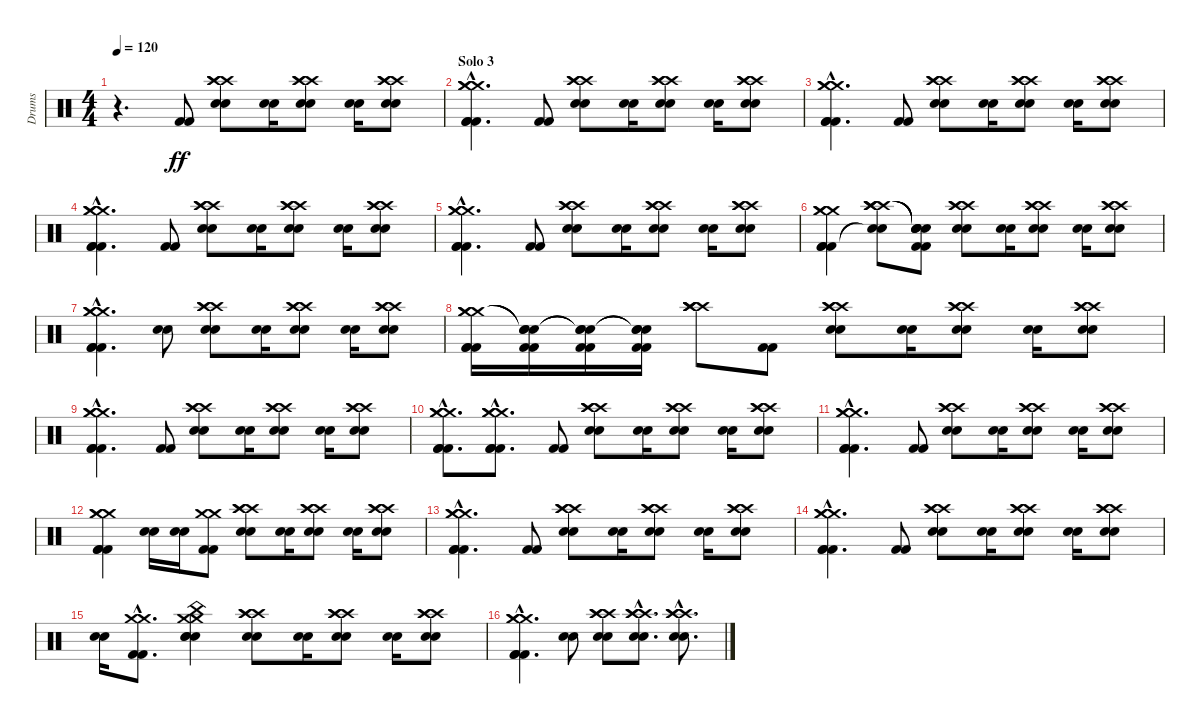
\track ("Drums" "Drums") {instrument percussion}
\staff {score}
\articulation defaults
\ts (4 4)
\tempo 120
\clef neutral
\ks c
r.4{d dy ff} ("Kick (hit) 2" "Kick (hit) 2").8 ("Crash high (hit)" "Crash high (hit)" "Crash high (hit)" "Snare (hit) 2" "Snare (hit) 2").8 ("Snare (hit) 2" "Snare (hit) 2").16 ("Crash high (hit)" "Crash high (hit)" "Crash high (hit)" "Snare (hit) 2" "Snare (hit) 2").8 ("Snare (hit) 2" "Snare (hit) 2").16 ("Crash high (hit)" "Crash high (hit)" "Crash high (hit)" "Snare (hit) 2" "Snare (hit) 2").8 |
\section ("" "Solo 3")
("Crash medium (hit)"{hac} "Crash medium (hit)"{hac} "Crash medium (hit)"{hac} "Kick (hit) 2"{hac} "Kick (hit) 2"{hac} "Kick (hit) 2"{hac}).4{d} ("Kick (hit) 2" "Kick (hit) 2").8 ("Crash high (hit)" "Crash high (hit)" "Crash high (hit)" "Snare (hit) 2" "Snare (hit) 2").8 ("Snare (hit) 2" "Snare (hit) 2").16 ("Crash high (hit)" "Crash high (hit)" "Crash high (hit)" "Snare (hit) 2" "Snare (hit) 2").8 ("Snare (hit) 2" "Snare (hit) 2").16 ("Crash high (hit)" "Crash high (hit)" "Crash high (hit)" "Snare (hit) 2" "Snare (hit) 2").8 |
("Crash medium (hit)"{hac} "Crash medium (hit)"{hac} "Crash medium (hit)"{hac} "Kick (hit) 2"{hac} "Kick (hit) 2"{hac} "Kick (hit) 2"{hac}).4{d} ("Kick (hit) 2" "Kick (hit) 2").8 ("Crash high (hit)" "Crash high (hit)" "Crash high (hit)" "Snare (hit) 2" "Snare (hit) 2").8 ("Snare (hit) 2" "Snare (hit) 2").16 ("Crash high (hit)" "Crash high (hit)" "Crash high (hit)" "Snare (hit) 2" "Snare (hit) 2").8 ("Snare (hit) 2" "Snare (hit) 2").16 ("Crash high (hit)" "Crash high (hit)" "Crash high (hit)" "Snare (hit) 2" "Snare (hit) 2").8 |
("Crash medium (hit)"{hac} "Crash medium (hit)"{hac} "Crash medium (hit)"{hac} "Kick (hit) 2"{hac} "Kick (hit) 2"{hac} "Kick (hit) 2"{hac}).4{d} ("Kick (hit) 2" "Kick (hit) 2").8 ("Crash high (hit)" "Crash high (hit)" "Crash high (hit)" "Snare (hit) 2" "Snare (hit) 2").8 ("Snare (hit) 2" "Snare (hit) 2").16 ("Crash high (hit)" "Crash high (hit)" "Crash high (hit)" "Snare (hit) 2" "Snare (hit) 2").8 ("Snare (hit) 2" "Snare (hit) 2").16 ("Crash high (hit)" "Crash high (hit)" "Crash high (hit)" "Snare (hit) 2" "Snare (hit) 2").8 |
("Crash medium (hit)"{hac} "Crash medium (hit)"{hac} "Crash medium (hit)"{hac} "Kick (hit) 2"{hac} "Kick (hit) 2"{hac} "Kick (hit) 2"{hac}).4{d} ("Kick (hit) 2" "Kick (hit) 2").8 ("Crash high (hit)" "Crash high (hit)" "Crash high (hit)" "Snare (hit) 2" "Snare (hit) 2").8 ("Snare (hit) 2" "Snare (hit) 2").16 ("Crash high (hit)" "Crash high (hit)" "Crash high (hit)" "Snare (hit) 2" "Snare (hit) 2").8 ("Snare (hit) 2" "Snare (hit) 2").16 ("Crash high (hit)" "Crash high (hit)" "Crash high (hit)" "Snare (hit) 2" "Snare (hit) 2").8 |
("Crash medium (hit)" "Crash medium (hit)" "Crash medium (hit)" "Kick (hit) 2" "Kick (hit) 2" "Kick (hit) 2").4 ("Crash high (hit)" "Crash high (hit)" "Crash high (hit)" "Crash high (hit)" "Snare (hit)"{t} "Snare (hit)"{t}).8 ("Snare (hit)"{t} "Snare (hit)"{t} "Snare (hit)"{t} "Snare (hit)"{t} "Kick (hit) 2" "Kick (hit) 2").8 ("Crash high (hit)" "Crash high (hit)" "Crash high (hit)" "Snare (hit) 2" "Snare (hit) 2").8 ("Snare (hit) 2" "Snare (hit) 2").16 ("Crash high (hit)" "Crash high (hit)" "Crash high (hit)" "Snare (hit) 2" "Snare (hit) 2").8 ("Snare (hit) 2" "Snare (hit) 2").16 ("Crash high (hit)" "Crash high (hit)" "Crash high (hit)" "Snare (hit) 2" "Snare (hit) 2").8 |
("Crash medium (hit)"{hac} "Crash medium (hit)"{hac} "Crash medium (hit)"{hac} "Kick (hit) 2"{hac} "Kick (hit) 2"{hac} "Kick (hit) 2"{hac}).4{d} ("Snare (hit) 2" "Snare (hit) 2").8 ("Crash high (hit)" "Crash high (hit)" "Crash high (hit)" "Snare (hit) 2" "Snare (hit) 2").8 ("Snare (hit) 2" "Snare (hit) 2").16 ("Crash high (hit)" "Crash high (hit)" "Crash high (hit)" "Snare (hit) 2" "Snare (hit) 2").8 ("Snare (hit) 2" "Snare (hit) 2").16 ("Crash high (hit)" "Crash high (hit)" "Crash high (hit)" "Snare (hit) 2" "Snare (hit) 2").8 |
("Crash medium (hit)" "Crash medium (hit)" "Crash medium (hit)" "Kick (hit) 2" "Kick (hit) 2" "Kick (hit) 2").16 ("Snare (hit)"{t} "Snare (hit)"{t} "Snare (hit)"{t} "Kick (hit) 2" "Kick (hit) 2").16 ("Snare (hit)"{t} "Snare (hit)"{t} "Snare (hit)"{t} "Kick (hit) 2" "Kick (hit) 2").16 ("Snare (hit)"{t} "Snare (hit)"{t} "Snare (hit)"{t} "Kick (hit) 2" "Kick (hit) 2").16 ("Crash high (hit)" "Crash high (hit)" "Crash high (hit)" "Crash high (hit)").8 ("Kick (hit) 2" "Kick (hit) 2").8 ("Crash high (hit)" "Crash high (hit)" "Crash high (hit)" "Snare (hit) 2" "Snare (hit) 2").8 ("Snare (hit) 2" "Snare (hit) 2").16 ("Crash high (hit)" "Crash high (hit)" "Crash high (hit)" "Snare (hit) 2" "Snare (hit) 2").8 ("Snare (hit) 2" "Snare (hit) 2").16 ("Crash high (hit)" "Crash high (hit)" "Crash high (hit)" "Snare (hit) 2" "Snare (hit) 2").8 |
("Crash medium (hit)"{hac} "Crash medium (hit)"{hac} "Crash medium (hit)"{hac} "Kick (hit) 2"{hac} "Kick (hit) 2"{hac} "Kick (hit) 2"{hac}).4{d} ("Kick (hit) 2" "Kick (hit) 2").8 ("Crash high (hit)" "Crash high (hit)" "Crash high (hit)" "Snare (hit) 2" "Snare (hit) 2").8 ("Snare (hit) 2" "Snare (hit) 2").16 ("Crash high (hit)" "Crash high (hit)" "Crash high (hit)" "Snare (hit) 2" "Snare (hit) 2").8 ("Snare (hit) 2" "Snare (hit) 2").16 ("Crash high (hit)" "Crash high (hit)" "Crash high (hit)" "Snare (hit) 2" "Snare (hit) 2").8 |
("Crash medium (hit)"{hac} "Crash medium (hit)"{hac} "Crash medium (hit)"{hac} "Kick (hit) 2"{hac} "Kick (hit) 2"{hac} "Kick (hit) 2"{hac}).8{d} ("Crash medium (hit)"{hac} "Crash medium (hit)"{hac} "Crash medium (hit)"{hac} "Kick (hit) 2"{hac} "Kick (hit) 2"{hac} "Kick (hit) 2"{hac}).8{d} ("Kick (hit) 2" "Kick (hit) 2").8 ("Crash high (hit)" "Crash high (hit)" "Crash high (hit)" "Snare (hit) 2" "Snare (hit) 2").8 ("Snare (hit) 2" "Snare (hit) 2").16 ("Crash high (hit)" "Crash high (hit)" "Crash high (hit)" "Snare (hit) 2" "Snare (hit) 2").8 ("Snare (hit) 2" "Snare (hit) 2").16 ("Crash high (hit)" "Crash high (hit)" "Crash high (hit)" "Snare (hit) 2" "Snare (hit) 2").8 |
("Crash medium (hit)"{hac} "Crash medium (hit)"{hac} "Crash medium (hit)"{hac} "Kick (hit) 2"{hac} "Kick (hit) 2"{hac} "Kick (hit) 2"{hac}).4{d} ("Kick (hit) 2" "Kick (hit) 2").8 ("Crash high (hit)" "Crash high (hit)" "Crash high (hit)" "Snare (hit) 2" "Snare (hit) 2").8 ("Snare (hit) 2" "Snare (hit) 2").16 ("Crash high (hit)" "Crash high (hit)" "Crash high (hit)" "Snare (hit) 2" "Snare (hit) 2").8 ("Snare (hit) 2" "Snare (hit) 2").16 ("Crash high (hit)" "Crash high (hit)" "Crash high (hit)" "Snare (hit) 2" "Snare (hit) 2").8 |
("Crash medium (hit)" "Crash medium (hit)" "Crash medium (hit)" "Kick (hit) 2" "Kick (hit) 2" "Kick (hit) 2").4 ("Snare (hit) 2" "Snare (hit) 2").16 ("Snare (hit) 2" "Snare (hit) 2").16 ("Crash medium (hit)" "Crash medium (hit)" "Kick (hit) 2" "Kick (hit) 2").8 ("Crash high (hit)" "Crash high (hit)" "Crash high (hit)" "Snare (hit) 2" "Snare (hit) 2").8 ("Snare (hit) 2" "Snare (hit) 2").16 ("Crash high (hit)" "Crash high (hit)" "Crash high (hit)" "Snare (hit) 2" "Snare (hit) 2").8 ("Snare (hit) 2" "Snare (hit) 2").16 ("Crash high (hit)" "Crash high (hit)" "Crash high (hit)" "Snare (hit) 2" "Snare (hit) 2").8 |
("Crash medium (hit)"{hac} "Crash medium (hit)"{hac} "Crash medium (hit)"{hac} "Kick (hit) 2"{hac} "Kick (hit) 2"{hac} "Kick (hit) 2"{hac}).4{d} ("Kick (hit) 2" "Kick (hit) 2").8 ("Crash high (hit)" "Crash high (hit)" "Crash high (hit)" "Snare (hit) 2" "Snare (hit) 2").8 ("Snare (hit) 2" "Snare (hit) 2").16 ("Crash high (hit)" "Crash high (hit)" "Crash high (hit)" "Snare (hit) 2" "Snare (hit) 2").8 ("Snare (hit) 2" "Snare (hit) 2").16 ("Crash high (hit)" "Crash high (hit)" "Crash high (hit)" "Snare (hit) 2" "Snare (hit) 2").8 |
("Crash medium (hit)"{hac} "Crash medium (hit)"{hac} "Crash medium (hit)"{hac} "Kick (hit) 2"{hac} "Kick (hit) 2"{hac} "Kick (hit) 2"{hac}).4{d} ("Kick (hit) 2" "Kick (hit) 2").8 ("Crash high (hit)" "Crash high (hit)" "Crash high (hit)" "Snare (hit) 2" "Snare (hit) 2").8 ("Snare (hit) 2" "Snare (hit) 2").16 ("Crash high (hit)" "Crash high (hit)" "Crash high (hit)" "Snare (hit) 2" "Snare (hit) 2").8 ("Snare (hit) 2" "Snare (hit) 2").16 ("Crash high (hit)" "Crash high (hit)" "Crash high (hit)" "Snare (hit) 2" "Snare (hit) 2").8 |
("Snare (hit) 2" "Snare (hit) 2").16 ("Crash medium (hit)"{hac} "Crash medium (hit)"{hac} "Kick (hit) 2"{hac} "Kick (hit) 2"{hac}).8{d} ("China (hit)" "Crash medium (hit)" "Crash medium (hit)" "Snare (hit) 2" "Snare (hit) 2" "Snare (hit) 2").4 ("Crash high (hit)" "Crash high (hit)" "Crash high (hit)" "Snare (hit) 2" "Snare (hit) 2").8 ("Snare (hit) 2" "Snare (hit) 2").16 ("Crash high (hit)" "Crash high (hit)" "Crash high (hit)" "Snare (hit) 2" "Snare (hit) 2").8 ("Snare (hit) 2" "Snare (hit) 2").16 ("Crash high (hit)" "Crash high (hit)" "Crash high (hit)" "Snare (hit) 2" "Snare (hit) 2").8 |
("Crash medium (hit)"{hac} "Crash medium (hit)"{hac} "Crash medium (hit)"{hac} "Kick (hit) 2"{hac} "Kick (hit) 2"{hac} "Kick (hit) 2"{hac}).4{d} ("Snare (hit) 2" "Snare (hit) 2").8 ("Crash high (hit)" "Crash high (hit)" "Crash high (hit)" "Snare (hit) 2" "Snare (hit) 2").8 ("Crash high (hit)"{hac} "Crash high (hit)"{hac} "Crash high (hit)"{hac} "Snare (hit) 2"{hac} "Snare (hit) 2"{hac}).8{d} ("Crash high (hit)"{hac} "Crash high (hit)"{hac} "Crash high (hit)"{hac} "Snare (hit) 2"{hac} "Snare (hit) 2"{hac}).8{d}
